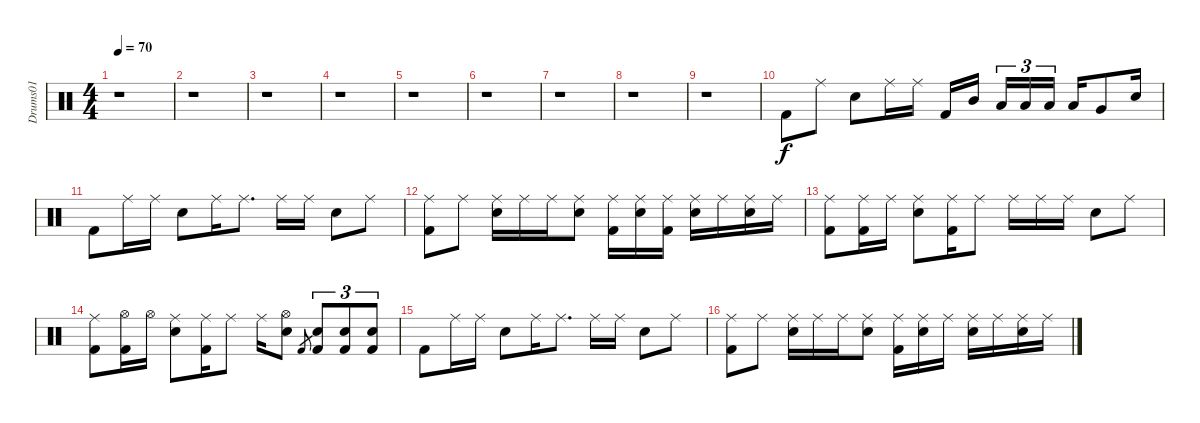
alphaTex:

\track ("Drums01" "Drums01") {instrument percussion}
\staff {score}
\articulation defaults
\ts (4 4)
\tempo 70
\clef neutral
\ks c
r.1{dy f} |
r.1 |
r.1 |
r.1 |
r.1 |
r.1 |
r.1 |
r.1 |
r.1 |
"Kick (hit) 2".8 "Ride (middle)".8 "Snare (hit) 2".8 "Ride (middle)".16 "Ride (middle)".16 "Kick (hit) 2".16 "Mid Tom (hit)".16{beam splitsecondary} "Low Tom (hit)".16{tu (3 2)} "Low Tom (hit)".16{tu (3 2)} "Low Tom (hit)".16{tu (3 2)} "Low Tom (hit)".16 "Very Low Tom (hit)".8 "Snare (hit) 2".16 |
"Kick (hit) 2".8 "Ride (middle)".16 "Ride (middle)".16 "Snare (hit) 2".8 "Ride (middle)".16 "Ride (middle)".8{d} "Ride (middle)".16 "Ride (middle)".16 "Snare (hit) 2".8 "Ride (middle)".8 |
("Ride (middle)" "Kick (hit) 2").8 "Ride (middle)".8 ("Ride (middle)" "Snare (hit) 2").16 "Ride (middle)".16 "Ride (middle)".16 ("Ride (middle)" "Snare (hit) 2").8 ("Ride (middle)" "Kick (hit) 2").16 ("Ride (middle)" "Snare (hit) 2").16 ("Ride (middle)" "Kick (hit) 2").16 ("Ride (middle)" "Snare (hit) 2").16 "Ride (middle)".16 ("Ride (middle)" "Snare (hit) 2").16 "Ride (middle)".16 |
("Ride (middle)" "Kick (hit) 2").8 ("Ride (middle)" "Kick (hit) 2").16 "Ride (middle)".16 ("Ride (middle)" "Snare (hit) 2").8 ("Ride (middle)" "Kick (hit) 2").16 "Ride (middle)".8 "Ride (middle)".16 "Ride (middle)".16 "Ride (middle)".16 "Snare (hit) 2".8 "Ride (middle)".8 |
("Ride (middle)" "Kick (hit) 2").8 ("Hi-Hat (open)" "Kick (hit) 2").16 "Hi-Hat (open)".16 ("Ride (middle)" "Snare (hit) 2").8 ("Ride (middle)" "Kick (hit) 2").16 "Ride (middle)".8 "Ride (middle)".16 ("Hi-Hat (open)" "Snare (hit) 2").8 "Kick (hit) 2".8{gr} ("Snare (hit) 2" "Kick (hit) 2").8{tu (3 2)} ("Snare (hit) 2" "Kick (hit) 2").8{tu (3 2)} ("Snare (hit) 2" "Kick (hit) 2").8{tu (3 2)} |
"Kick (hit) 2".8 "Ride (middle)".16 "Ride (middle)".16 "Snare (hit) 2".8 "Ride (middle)".16 "Ride (middle)".8{d} "Ride (middle)".16 "Ride (middle)".16 "Snare (hit) 2".8 "Ride (middle)".8 |
("Ride (middle)" "Kick (hit) 2").8 "Ride (middle)".8 ("Ride (middle)" "Snare (hit) 2").16 "Ride (middle)".16 "Ride (middle)".16 ("Ride (middle)" "Snare (hit) 2").8 ("Ride (middle)" "Kick (hit) 2").16 ("Ride (middle)" "Snare (hit) 2").16 "Ride (middle)".16 ("Ride (middle)" "Snare (hit) 2").16 "Ride (middle)".16 ("Ride (middle)" "Snare (hit) 2").16 "Ride (middle)".16
